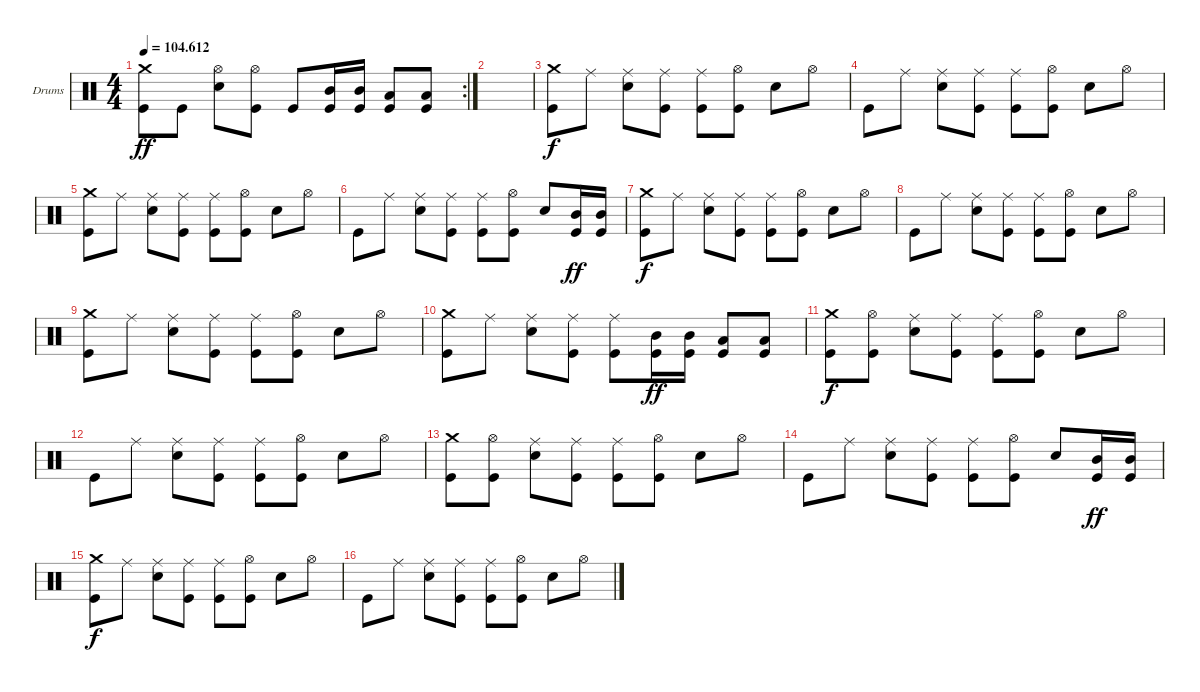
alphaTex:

\defaultSystemsLayout 4
\bracketExtendMode groupsimilarinstruments
\firstSystemTrackNameOrientation horizontal
\otherSystemsTrackNameOrientation horizontal
\track ("Drumkit" "Drums") {instrument percussion}
\staff {score}
\articulation defaults
\rc 2
\ts (4 4)
\tempo
104.612
\accidentals auto
\clef neutral
\ottava regular
\simile none
\ks c
("Kick (hit)" "Crash medium (hit)").8{dy ff} "Kick (hit)".8 ("Snare (hit) 2" "Hi-Hat (open)").8 ("Kick (hit)" "Hi-Hat (open)").8 "Kick (hit)".8 ("Mid Tom (hit)" "Kick (hit)").16 ("Mid Tom (hit)" "Kick (hit)").16 ("Low Tom (hit)" "Kick (hit)").8 ("Low Tom (hit)" "Kick (hit)").8 |
|
("Kick (hit)" "Crash medium (hit)").8{dy f} "Ride (middle)".8 ("Snare (hit) 2" "Ride (middle)").8 ("Kick (hit)" "Ride (middle)").8 ("Kick (hit)" "Ride (middle)").8 ("Kick (hit)" "Hi-Hat (open)").8 "Snare (hit) 2".8 "Hi-Hat (open)".8 |
"Kick (hit)".8 "Ride (middle)".8 ("Snare (hit) 2" "Ride (middle)").8 ("Kick (hit)" "Ride (middle)").8 ("Kick (hit)" "Ride (middle)").8 ("Kick (hit)" "Hi-Hat (open)").8 "Snare (hit) 2".8 "Hi-Hat (open)".8 |
("Kick (hit)" "Crash medium (hit)").8 "Ride (middle)".8 ("Snare (hit) 2" "Ride (middle)").8 ("Kick (hit)" "Ride (middle)").8 ("Kick (hit)" "Ride (middle)").8 ("Kick (hit)" "Hi-Hat (open)").8 "Snare (hit) 2".8 "Hi-Hat (open)".8 |
"Kick (hit)".8 "Ride (middle)".8 ("Snare (hit) 2" "Ride (middle)").8 ("Kick (hit)" "Ride (middle)").8 ("Kick (hit)" "Ride (middle)").8 ("Kick (hit)" "Hi-Hat (open)").8 "Snare (hit) 2".8 ("Mid Tom (hit)" "Kick (hit)").16{dy ff} ("Mid Tom (hit)" "Kick (hit)").16 |
("Kick (hit)" "Crash medium (hit)").8{dy f} "Ride (middle)".8 ("Snare (hit) 2" "Ride (middle)").8 ("Kick (hit)" "Ride (middle)").8 ("Kick (hit)" "Ride (middle)").8 ("Kick (hit)" "Hi-Hat (open)").8 "Snare (hit) 2".8 "Hi-Hat (open)".8 |
"Kick (hit)".8 "Ride (middle)".8 ("Snare (hit) 2" "Ride (middle)").8 ("Kick (hit)" "Ride (middle)").8 ("Kick (hit)" "Ride (middle)").8 ("Kick (hit)" "Hi-Hat (open)").8 "Snare (hit) 2".8 "Hi-Hat (open)".8 |
("Kick (hit)" "Crash medium (hit)").8 "Ride (middle)".8 ("Snare (hit) 2" "Ride (middle)").8 ("Kick (hit)" "Ride (middle)").8 ("Kick (hit)" "Ride (middle)").8 ("Kick (hit)" "Hi-Hat (open)").8 "Snare (hit) 2".8 "Hi-Hat (open)".8 |
("Kick (hit)" "Crash medium (hit)").8 "Ride (middle)".8 ("Snare (hit) 2" "Ride (middle)").8 ("Kick (hit)" "Ride (middle)").8 ("Kick (hit)" "Ride (middle)").8 ("Mid Tom (hit)" "Kick (hit)").16{dy ff} ("Mid Tom (hit)" "Kick (hit)").16 ("Low Tom (hit)" "Kick (hit)").8 ("Low Tom (hit)" "Kick (hit)").8 |
("Kick (hit)" "Crash medium (hit)").8{dy f} ("Kick (hit)" "Hi-Hat (open)").8 ("Snare (hit) 2" "Ride (middle)").8 ("Kick (hit)" "Ride (middle)").8 ("Kick (hit)" "Ride (middle)").8 ("Kick (hit)" "Hi-Hat (open)").8 "Snare (hit) 2".8 "Hi-Hat (open)".8 |
"Kick (hit)".8 "Ride (middle)".8 ("Snare (hit) 2" "Ride (middle)").8 ("Kick (hit)" "Ride (middle)").8 ("Kick (hit)" "Ride (middle)").8 ("Kick (hit)" "Hi-Hat (open)").8 "Snare (hit) 2".8 "Hi-Hat (open)".8 |
("Kick (hit)" "Crash medium (hit)").8 ("Kick (hit)" "Hi-Hat (open)").8 ("Snare (hit) 2" "Ride (middle)").8 ("Kick (hit)" "Ride (middle)").8 ("Kick (hit)" "Ride (middle)").8 ("Kick (hit)" "Hi-Hat (open)").8 "Snare (hit) 2".8 "Hi-Hat (open)".8 |
"Kick (hit)".8 "Ride (middle)".8 ("Snare (hit) 2" "Ride (middle)").8 ("Kick (hit)" "Ride (middle)").8 ("Kick (hit)" "Ride (middle)").8 ("Kick (hit)" "Hi-Hat (open)").8 "Snare (hit) 2".8 ("Mid Tom (hit)" "Kick (hit)").16{dy ff} ("Mid Tom (hit)" "Kick (hit)").16 |
("Kick (hit)" "Crash medium (hit)").8{dy f} "Ride (middle)".8 ("Snare (hit) 2" "Ride (middle)").8 ("Kick (hit)" "Ride (middle)").8 ("Kick (hit)" "Ride (middle)").8 ("Kick (hit)" "Hi-Hat (open)").8 "Snare (hit) 2".8 "Hi-Hat (open)".8 |
"Kick (hit)".8 "Ride (middle)".8 ("Snare (hit) 2" "Ride (middle)").8 ("Kick (hit)" "Ride (middle)").8 ("Kick (hit)" "Ride (middle)").8 ("Kick (hit)" "Hi-Hat (open)").8 "Snare (hit) 2".8 "Hi-Hat (open)".8
